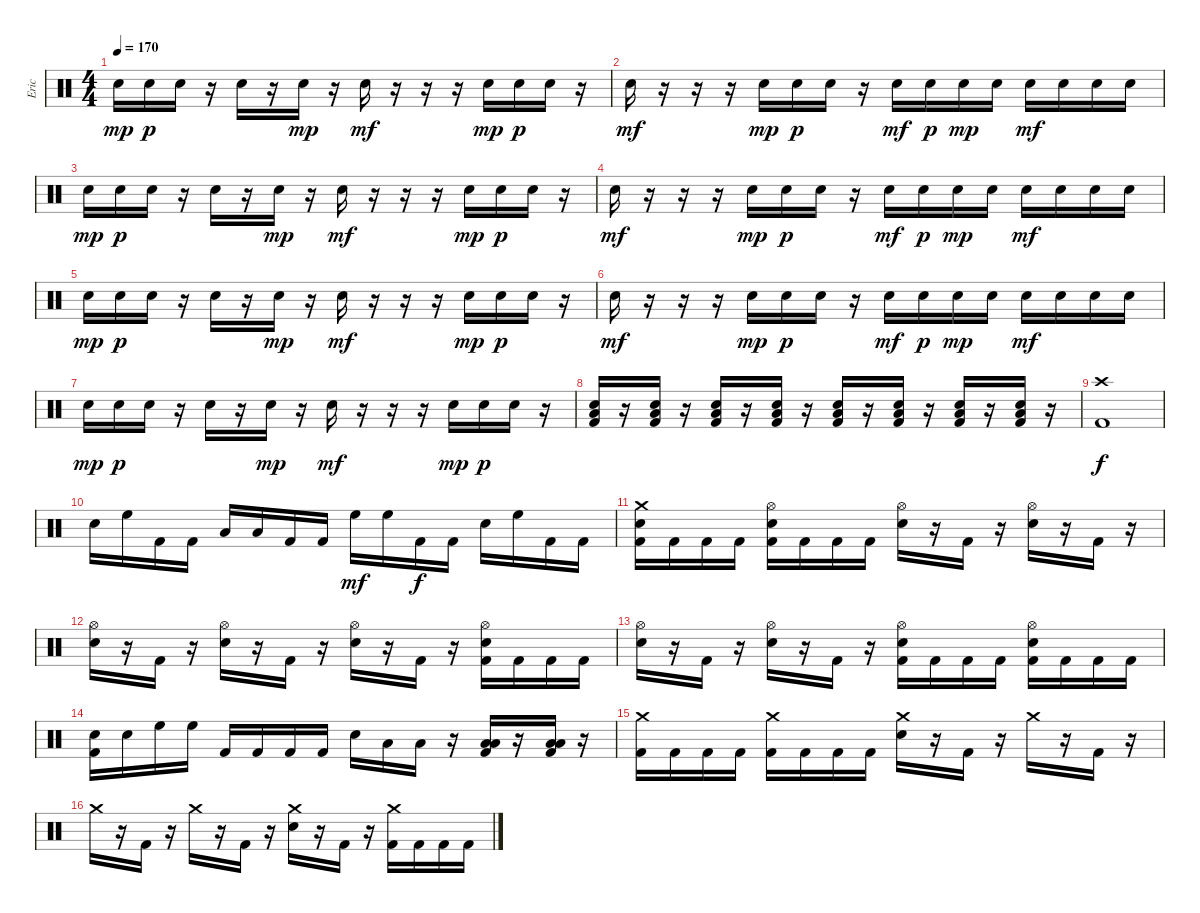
\track ("Eric" "Eric") {instrument percussion}
\staff {score}
\articulation defaults
\ts (4 4)
\tempo 170
\clef neutral
\ks c "Electric Snare (hit)".16{dy mp} "Electric Snare (hit)".16{dy p} "Electric Snare (hit)".16
r.16 "Electric Snare (hit)".16 r.16 "Electric Snare (hit)".16{dy mp} r.16 "Electric Snare (hit)".16{dy mf} r.16 r.16 r.16 "Electric Snare (hit)".16{dy mp} "Electric Snare (hit)".16{dy p} "Electric Snare (hit)".16 r.16 |
"Electric Snare (hit)".16{dy mf} r.16 r.16 r.16 "Electric Snare (hit)".16{dy mp} "Electric Snare (hit)".16{dy p} "Electric Snare (hit)".16 r.16 "Electric Snare (hit)".16{dy mf} "Electric Snare (hit)".16{dy p} "Electric Snare (hit)".16{dy mp} "Electric Snare (hit)".16 "Electric Snare (hit)".16{dy mf} "Electric Snare (hit)".16 "Electric Snare (hit)".16 "Electric Snare (hit)".16 |
"Electric Snare (hit)".16{dy mp} "Electric Snare (hit)".16{dy p} "Electric Snare (hit)".16 r.16 "Electric Snare (hit)".16 r.16 "Electric Snare (hit)".16{dy mp} r.16 "Electric Snare (hit)".16{dy mf} r.16 r.16 r.16 "Electric Snare (hit)".16{dy mp} "Electric Snare (hit)".16{dy p} "Electric Snare (hit)".16 r.16 |
"Electric Snare (hit)".16{dy mf} r.16 r.16 r.16 "Electric Snare (hit)".16{dy mp} "Electric Snare (hit)".16{dy p} "Electric Snare (hit)".16 r.16 "Electric Snare (hit)".16{dy mf} "Electric Snare (hit)".16{dy p} "Electric Snare (hit)".16{dy mp} "Electric Snare (hit)".16 "Electric Snare (hit)".16{dy mf} "Electric Snare (hit)".16 "Electric Snare (hit)".16 "Electric Snare (hit)".16 |
"Electric Snare (hit)".16{dy mp} "Electric Snare (hit)".16{dy p} "Electric Snare (hit)".16 r.16 "Electric Snare (hit)".16 r.16 "Electric Snare (hit)".16{dy mp} r.16 "Electric Snare (hit)".16{dy mf} r.16 r.16 r.16 "Electric Snare (hit)".16{dy mp} "Electric Snare (hit)".16{dy p} "Electric Snare (hit)".16 r.16 |
"Electric Snare (hit)".16{dy mf} r.16 r.16 r.16 "Electric Snare (hit)".16{dy mp} "Electric Snare (hit)".16{dy p} "Electric Snare (hit)".16 r.16 "Electric Snare (hit)".16{dy mf} "Electric Snare (hit)".16{dy p} "Electric Snare (hit)".16{dy mp} "Electric Snare (hit)".16 "Electric Snare (hit)".16{dy mf} "Electric Snare (hit)".16 "Electric Snare (hit)".16 "Electric Snare (hit)".16 |
"Electric Snare (hit)".16{dy mp} "Electric Snare (hit)".16{dy p} "Electric Snare (hit)".16 r.16 "Electric Snare (hit)".16 r.16 "Electric Snare (hit)".16{dy mp} r.16 "Electric Snare (hit)".16{dy mf} r.16 r.16 r.16 "Electric Snare (hit)".16{dy mp} "Electric Snare (hit)".16{dy p} "Electric Snare (hit)".16 r.16 |
("Electric Snare (hit)" "Low Tom (hit)" "Kick (hit) 2").16 r.16 ("Electric Snare (hit)" "Low Tom (hit)" "Kick (hit) 2").16 r.16 ("Electric Snare (hit)" "Low Tom (hit)" "Kick (hit) 2").16 r.16 ("Electric Snare (hit)" "Low Tom (hit)" "Kick (hit) 2").16 r.16 ("Electric Snare (hit)" "Low Tom (hit)" "Kick (hit) 2").16 r.16 ("Electric Snare (hit)" "Low Tom (hit)" "Kick (hit) 2").16 r.16 ("Electric Snare (hit)" "Low Tom (hit)" "Kick (hit) 2").16 r.16 ("Electric Snare (hit)" "Low Tom (hit)" "Kick (hit) 2").16 r.16 |
("Crash high (hit)" "Kick (hit) 2").1{dy f} |
"Electric Snare (hit)".16 "High Floor Tom (hit)".16 "Kick (hit) 2".16 "Kick (hit) 2".16 "Low Tom (hit)".16 "Low Tom (hit)".16 "Kick (hit) 2".16 "Kick (hit) 2".16 "High Floor Tom (hit)".16{dy mf} "High Floor Tom (hit)".16 "Kick (hit) 2".16{dy f} "Kick (hit) 2".16 "Electric Snare (hit)".16 "High Floor Tom (hit)".16 "Kick (hit) 2".16 "Kick (hit) 2".16 |
("Crash medium (hit)" "Electric Snare (hit)" "Kick (hit) 2").16 "Kick (hit) 2".16 "Kick (hit) 2".16 "Kick (hit) 2".16 ("Hi-Hat (open)" "Electric Snare (hit)" "Kick (hit) 2").16 "Kick (hit) 2".16 "Kick (hit) 2".16 "Kick (hit) 2".16 ("Hi-Hat (open)" "Electric Snare (hit)").16 r.16 "Kick (hit) 2".16 r.16 ("Hi-Hat (open)" "Electric Snare (hit)").16 r.16 "Kick (hit) 2".16 r.16 |
("Hi-Hat (open)" "Electric Snare (hit)").16 r.16 "Kick (hit) 2".16 r.16 ("Hi-Hat (open)" "Electric Snare (hit)").16 r.16 "Kick (hit) 2".16 r.16 ("Hi-Hat (open)" "Electric Snare (hit)").16 r.16 "Kick (hit) 2".16 r.16 ("Hi-Hat (open)" "Electric Snare (hit)" "Kick (hit) 2").16 "Kick (hit) 2".16 "Kick (hit) 2".16 "Kick (hit) 2".16 |
("Hi-Hat (open)" "Electric Snare (hit)").16 r.16 "Kick (hit) 2".16 r.16 ("Hi-Hat (open)" "Electric Snare (hit)").16 r.16 "Kick (hit) 2".16 r.16 ("Hi-Hat (open)" "Electric Snare (hit)" "Kick (hit) 2").16 "Kick (hit) 2".16 "Kick (hit) 2".16 "Kick (hit) 2".16 ("Hi-Hat (open)" "Electric Snare (hit)" "Kick (hit) 2").16 "Kick (hit) 2".16 "Kick (hit) 2".16 "Kick (hit) 2".16 |
("Electric Snare (hit)" "Kick (hit) 2").16 "Electric Snare (hit)".16 "High Floor Tom (hit)".16 "High Floor Tom (hit)".16 "Kick (hit) 2".16 "Kick (hit) 2".16 "Kick (hit) 2".16 "Kick (hit) 2".16 "Electric Snare (hit)".16 "Low Tom (hit)".16 "Low Floor Tom (hit)".16 r.16 ("Low Tom (hit)" "Low Floor Tom (hit)" "Kick (hit) 2").16 r.16 ("Low Tom (hit)" "Low Floor Tom (hit)" "Kick (hit) 2").16 r.16 |
("Crash medium (hit)" "Kick (hit) 2").16 "Kick (hit) 2".16 "Kick (hit) 2".16 "Kick (hit) 2".16 ("Crash medium (hit)" "Kick (hit) 2").16 "Kick (hit) 2".16 "Kick (hit) 2".16 "Kick (hit) 2".16 ("Crash medium (hit)" "Electric Snare (hit)").16 r.16 "Kick (hit) 2".16 r.16 "Crash medium (hit)".16 r.16 "Kick (hit) 2".16 r.16 |
"Crash medium (hit)".16 r.16 "Kick (hit) 2".16 r.16 "Crash medium (hit)".16 r.16 "Kick (hit) 2".16 r.16 ("Crash medium (hit)" "Electric Snare (hit)").16 r.16 "Kick (hit) 2".16 r.16 ("Crash medium (hit)" "Kick (hit) 2").16 "Kick (hit) 2".16 "Kick (hit) 2".16 "Kick (hit) 2".16
